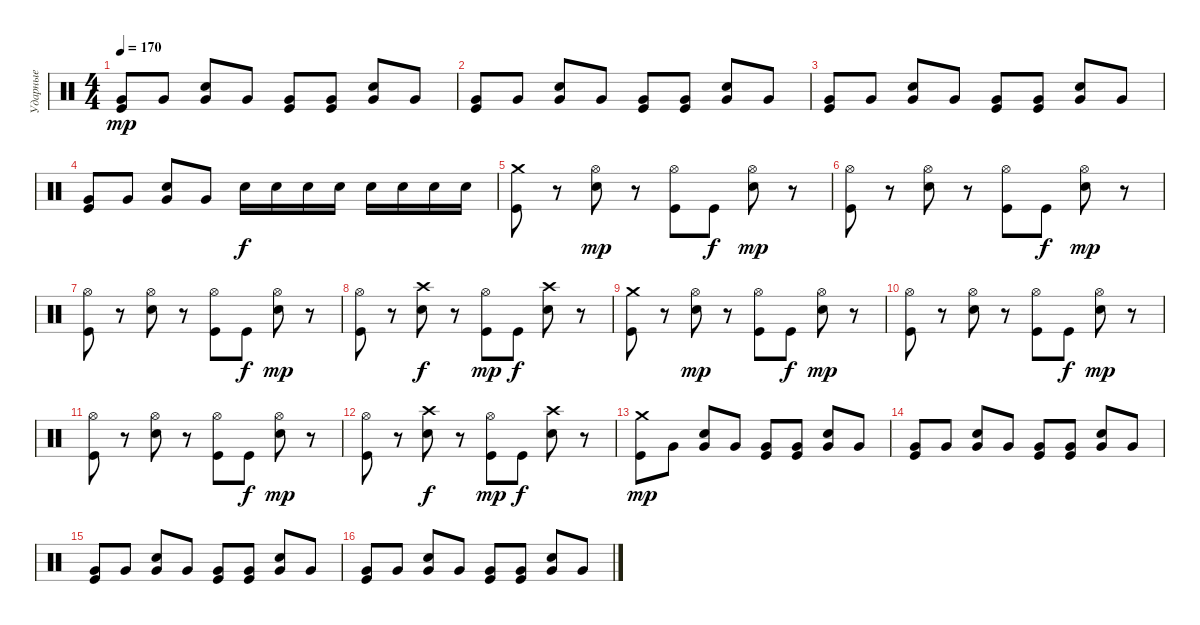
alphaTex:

\track ("Ударные" "Ударные") {instrument percussion}
\staff {score}
\articulation defaults
\ts (4 4)
\tempo 170
\clef neutral
\ks c
("Very Low Tom (hit)" "Kick (hit)").8{dy mp} "Very Low Tom (hit)".8 ("Very Low Tom (hit)" "Electric Snare (hit)").8 "Very Low Tom (hit)".8 ("Very Low Tom (hit)" "Kick (hit)").8 ("Very Low Tom (hit)" "Kick (hit)").8 ("Very Low Tom (hit)" "Electric Snare (hit)").8 "Very Low Tom (hit)".8 |
("Very Low Tom (hit)" "Kick (hit)").8 "Very Low Tom (hit)".8 ("Very Low Tom (hit)" "Electric Snare (hit)").8 "Very Low Tom (hit)".8 ("Very Low Tom (hit)" "Kick (hit)").8 ("Very Low Tom (hit)" "Kick (hit)").8 ("Very Low Tom (hit)" "Electric Snare (hit)").8 "Very Low Tom (hit)".8 |
("Very Low Tom (hit)" "Kick (hit)").8 "Very Low Tom (hit)".8 ("Very Low Tom (hit)" "Electric Snare (hit)").8 "Very Low Tom (hit)".8 ("Very Low Tom (hit)" "Kick (hit)").8 ("Very Low Tom (hit)" "Kick (hit)").8 ("Very Low Tom (hit)" "Electric Snare (hit)").8 "Very Low Tom (hit)".8 |
("Very Low Tom (hit)" "Kick (hit)").8 "Very Low Tom (hit)".8 ("Very Low Tom (hit)" "Electric Snare (hit)").8 "Very Low Tom (hit)".8 "Electric Snare (hit)".16{dy f} "Electric Snare (hit)".16 "Electric Snare (hit)".16 "Electric Snare (hit)".16 "Electric Snare (hit)".16 "Electric Snare (hit)".16 "Electric Snare (hit)".16 "Electric Snare (hit)".16 |
("Crash medium (hit)" "Kick (hit)").8 r.8 ("Hi-Hat (open)" "Electric Snare (hit)").8{dy mp} r.8 ("Hi-Hat (open)" "Kick (hit)").8 "Kick (hit)".8{dy f} ("Hi-Hat (open)" "Electric Snare (hit)").8{dy mp} r.8 |
("Hi-Hat (open)" "Kick (hit)").8 r.8 ("Hi-Hat (open)" "Electric Snare (hit)").8 r.8 ("Hi-Hat (open)" "Kick (hit)").8 "Kick (hit)".8{dy f} ("Hi-Hat (open)" "Electric Snare (hit)").8{dy mp} r.8 |
("Hi-Hat (open)" "Kick (hit)").8 r.8 ("Hi-Hat (open)" "Electric Snare (hit)").8 r.8 ("Hi-Hat (open)" "Kick (hit)").8 "Kick (hit)".8{dy f} ("Hi-Hat (open)" "Electric Snare (hit)").8{dy mp} r.8 |
("Hi-Hat (open)" "Kick (hit)").8 r.8 ("Crash high (hit)" "Electric Snare (hit)").8{dy f} r.8 ("Hi-Hat (open)" "Kick (hit)").8{dy mp} "Kick (hit)".8{dy f} ("Crash high (hit)" "Electric Snare (hit)").8 r.8 |
("Crash medium (hit)" "Kick (hit)").8 r.8 ("Hi-Hat (open)" "Electric Snare (hit)").8{dy mp} r.8 ("Hi-Hat (open)" "Kick (hit)").8 "Kick (hit)".8{dy f} ("Hi-Hat (open)" "Electric Snare (hit)").8{dy mp} r.8 |
("Hi-Hat (open)" "Kick (hit)").8 r.8 ("Hi-Hat (open)" "Electric Snare (hit)").8 r.8 ("Hi-Hat (open)" "Kick (hit)").8 "Kick (hit)".8{dy f} ("Hi-Hat (open)" "Electric Snare (hit)").8{dy mp} r.8 |
("Hi-Hat (open)" "Kick (hit)").8 r.8 ("Hi-Hat (open)" "Electric Snare (hit)").8 r.8 ("Hi-Hat (open)" "Kick (hit)").8 "Kick (hit)".8{dy f} ("Hi-Hat (open)" "Electric Snare (hit)").8{dy mp} r.8 |
("Hi-Hat (open)" "Kick (hit)").8 r.8 ("Crash high (hit)" "Electric Snare (hit)").8{dy f} r.8 ("Hi-Hat (open)" "Kick (hit)").8{dy mp} "Kick (hit)".8{dy f} ("Crash high (hit)" "Electric Snare (hit)").8 r.8 |
("Crash medium (hit)" "Kick (hit)").8{dy mp} "Very Low Tom (hit)".8 ("Very Low Tom (hit)" "Electric Snare (hit)").8 "Very Low Tom (hit)".8 ("Very Low Tom (hit)" "Kick (hit)").8 ("Very Low Tom (hit)" "Kick (hit)").8 ("Very Low Tom (hit)" "Electric Snare (hit)").8 "Very Low Tom (hit)".8 |
("Very Low Tom (hit)" "Kick (hit)").8 "Very Low Tom (hit)".8 ("Very Low Tom (hit)" "Electric Snare (hit)").8 "Very Low Tom (hit)".8 ("Very Low Tom (hit)" "Kick (hit)").8 ("Very Low Tom (hit)" "Kick (hit)").8 ("Very Low Tom (hit)" "Electric Snare (hit)").8 "Very Low Tom (hit)".8 |
("Very Low Tom (hit)" "Kick (hit)").8 "Very Low Tom (hit)".8 ("Very Low Tom (hit)" "Electric Snare (hit)").8 "Very Low Tom (hit)".8 ("Very Low Tom (hit)" "Kick (hit)").8 ("Very Low Tom (hit)" "Kick (hit)").8 ("Very Low Tom (hit)" "Electric Snare (hit)").8 "Very Low Tom (hit)".8 |
("Very Low Tom (hit)" "Kick (hit)").8 "Very Low Tom (hit)".8 ("Very Low Tom (hit)" "Electric Snare (hit)").8 "Very Low Tom (hit)".8 ("Very Low Tom (hit)" "Kick (hit)").8 ("Very Low Tom (hit)" "Kick (hit)").8 ("Very Low Tom (hit)" "Electric Snare (hit)").8 "Very Low Tom (hit)".8
